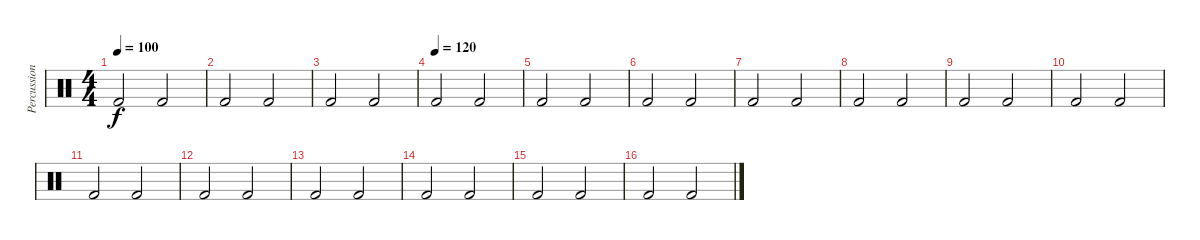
\track ("Percussion" "Percussion") {mute instrument percussion}
\staff {score}
\articulation defaults
\ts (4 4)
\tempo 100
\clef neutral
\ks c "Kick (hit) 2".2{dy f} "Kick (hit) 2".2
|
"Kick (hit) 2".2 "Kick (hit) 2".2 |
"Kick (hit) 2".2 "Kick (hit) 2".2 |
\tempo (120)
"Kick (hit) 2".2 "Kick (hit) 2".2 |
"Kick (hit) 2".2 "Kick (hit) 2".2 |
"Kick (hit) 2".2 "Kick (hit) 2".2 |
"Kick (hit) 2".2 "Kick (hit) 2".2 |
"Kick (hit) 2".2 "Kick (hit) 2".2 |
"Kick (hit) 2".2 "Kick (hit) 2".2 |
"Kick (hit) 2".2 "Kick (hit) 2".2 |
"Kick (hit) 2".2 "Kick (hit) 2".2 |
"Kick (hit) 2".2 "Kick (hit) 2".2 |
"Kick (hit) 2".2 "Kick (hit) 2".2 |
"Kick (hit) 2".2 "Kick (hit) 2".2 |
"Kick (hit) 2".2 "Kick (hit) 2".2 |
"Kick (hit) 2".2 "Kick (hit) 2".2
